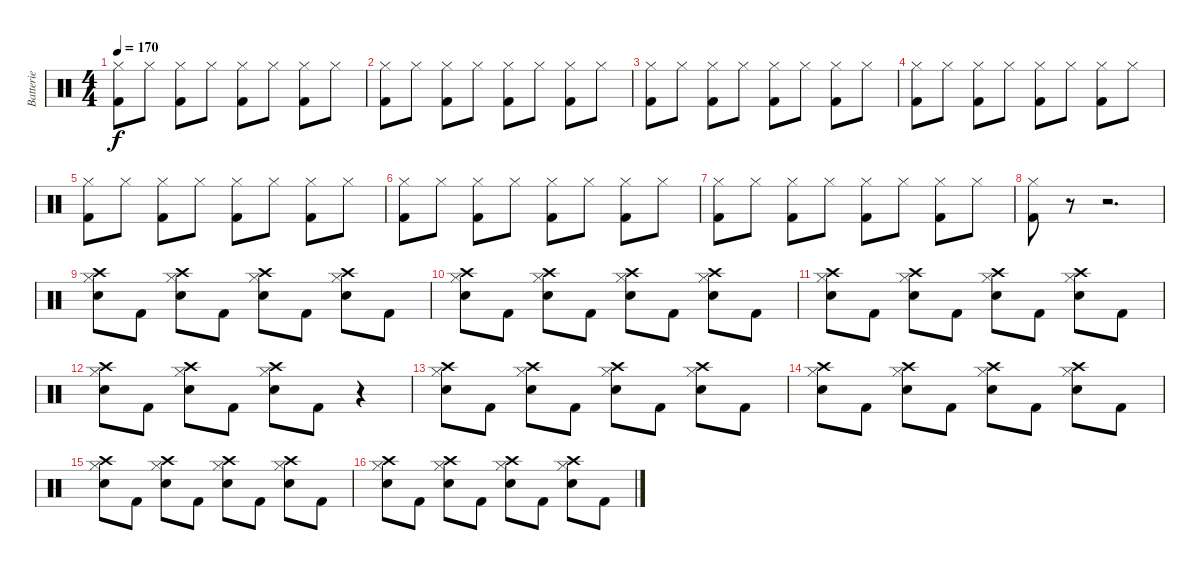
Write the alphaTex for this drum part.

\track ("Batterie" "Batterie") {instrument percussion}
\staff {score}
\articulation defaults
\ts (4 4)
\tempo 170
\clef neutral
\ks c
("Hi-Hat (closed)" "Kick (hit) 2").8{dy f} "Hi-Hat (closed)".8 ("Hi-Hat (closed)" "Kick (hit) 2").8 "Hi-Hat (closed)".8 ("Hi-Hat (closed)" "Kick (hit) 2").8 "Hi-Hat (closed)".8 ("Hi-Hat (closed)" "Kick (hit) 2").8 "Hi-Hat (closed)".8 |
("Hi-Hat (closed)" "Kick (hit) 2").8 "Hi-Hat (closed)".8 ("Hi-Hat (closed)" "Kick (hit) 2").8 "Hi-Hat (closed)".8 ("Hi-Hat (closed)" "Kick (hit) 2").8 "Hi-Hat (closed)".8 ("Hi-Hat (closed)" "Kick (hit) 2").8 "Hi-Hat (closed)".8 |
("Hi-Hat (closed)" "Kick (hit) 2").8 "Hi-Hat (closed)".8 ("Hi-Hat (closed)" "Kick (hit) 2").8 "Hi-Hat (closed)".8 ("Hi-Hat (closed)" "Kick (hit) 2").8 "Hi-Hat (closed)".8 ("Hi-Hat (closed)" "Kick (hit) 2").8 "Hi-Hat (closed)".8 |
("Hi-Hat (closed)" "Kick (hit) 2").8 "Hi-Hat (closed)".8 ("Hi-Hat (closed)" "Kick (hit) 2").8 "Hi-Hat (closed)".8 ("Hi-Hat (closed)" "Kick (hit) 2").8 "Hi-Hat (closed)".8 ("Hi-Hat (closed)" "Kick (hit) 2").8 "Hi-Hat (closed)".8 |
("Hi-Hat (closed)" "Kick (hit) 2").8 "Hi-Hat (closed)".8 ("Hi-Hat (closed)" "Kick (hit) 2").8 "Hi-Hat (closed)".8 ("Hi-Hat (closed)" "Kick (hit) 2").8 "Hi-Hat (closed)".8 ("Hi-Hat (closed)" "Kick (hit) 2").8 "Hi-Hat (closed)".8 |
("Hi-Hat (closed)" "Kick (hit) 2").8 "Hi-Hat (closed)".8 ("Hi-Hat (closed)" "Kick (hit) 2").8 "Hi-Hat (closed)".8 ("Hi-Hat (closed)" "Kick (hit) 2").8 "Hi-Hat (closed)".8 ("Hi-Hat (closed)" "Kick (hit) 2").8 "Hi-Hat (closed)".8 |
("Hi-Hat (closed)" "Kick (hit) 2").8 "Hi-Hat (closed)".8 ("Hi-Hat (closed)" "Kick (hit) 2").8 "Hi-Hat (closed)".8 ("Hi-Hat (closed)" "Kick (hit) 2").8 "Hi-Hat (closed)".8 ("Hi-Hat (closed)" "Kick (hit) 2").8 "Hi-Hat (closed)".8 |
("Hi-Hat (closed)" "Kick (hit) 2").8 r.8 r.2{d} |
\section ("" "")
("Hi-Hat (closed)" "Snare (hit) 2" "Crash high (hit)").8 "Kick (hit) 2".8 ("Hi-Hat (closed)" "Snare (hit) 2" "Crash high (hit)").8 "Kick (hit) 2".8 ("Hi-Hat (closed)" "Snare (hit) 2" "Crash high (hit)").8 "Kick (hit) 2".8 ("Hi-Hat (closed)" "Snare (hit) 2" "Crash high (hit)").8 "Kick (hit) 2".8 |
("Hi-Hat (closed)" "Snare (hit) 2" "Crash high (hit)").8 "Kick (hit) 2".8 ("Hi-Hat (closed)" "Snare (hit) 2" "Crash high (hit)").8 "Kick (hit) 2".8 ("Hi-Hat (closed)" "Snare (hit) 2" "Crash high (hit)").8 "Kick (hit) 2".8 ("Hi-Hat (closed)" "Snare (hit) 2" "Crash high (hit)").8 "Kick (hit) 2".8 |
("Hi-Hat (closed)" "Snare (hit) 2" "Crash high (hit)").8 "Kick (hit) 2".8 ("Hi-Hat (closed)" "Snare (hit) 2" "Crash high (hit)").8 "Kick (hit) 2".8 ("Hi-Hat (closed)" "Snare (hit) 2" "Crash high (hit)").8 "Kick (hit) 2".8 ("Hi-Hat (closed)" "Snare (hit) 2" "Crash high (hit)").8 "Kick (hit) 2".8 |
("Hi-Hat (closed)" "Snare (hit) 2" "Crash high (hit)").8 "Kick (hit) 2".8 ("Hi-Hat (closed)" "Snare (hit) 2" "Crash high (hit)").8 "Kick (hit) 2".8 ("Hi-Hat (closed)" "Snare (hit) 2" "Crash high (hit)").8 "Kick (hit) 2".8 r.4 |
("Hi-Hat (closed)" "Snare (hit) 2" "Crash high (hit)").8 "Kick (hit) 2".8 ("Hi-Hat (closed)" "Snare (hit) 2" "Crash high (hit)").8 "Kick (hit) 2".8 ("Hi-Hat (closed)" "Snare (hit) 2" "Crash high (hit)").8 "Kick (hit) 2".8 ("Hi-Hat (closed)" "Snare (hit) 2" "Crash high (hit)").8 "Kick (hit) 2".8 |
("Hi-Hat (closed)" "Snare (hit) 2" "Crash high (hit)").8 "Kick (hit) 2".8 ("Hi-Hat (closed)" "Snare (hit) 2" "Crash high (hit)").8 "Kick (hit) 2".8 ("Hi-Hat (closed)" "Snare (hit) 2" "Crash high (hit)").8 "Kick (hit) 2".8 ("Hi-Hat (closed)" "Snare (hit) 2" "Crash high (hit)").8 "Kick (hit) 2".8 |
("Hi-Hat (closed)" "Snare (hit) 2" "Crash high (hit)").8 "Kick (hit) 2".8 ("Hi-Hat (closed)" "Snare (hit) 2" "Crash high (hit)").8 "Kick (hit) 2".8 ("Hi-Hat (closed)" "Snare (hit) 2" "Crash high (hit)").8 "Kick (hit) 2".8 ("Hi-Hat (closed)" "Snare (hit) 2" "Crash high (hit)").8 "Kick (hit) 2".8 |
("Hi-Hat (closed)" "Snare (hit) 2" "Crash high (hit)").8 "Kick (hit) 2".8 ("Hi-Hat (closed)" "Snare (hit) 2" "Crash high (hit)").8 "Kick (hit) 2".8 ("Hi-Hat (closed)" "Snare (hit) 2" "Crash high (hit)").8 "Kick (hit) 2".8 ("Hi-Hat (closed)" "Snare (hit) 2" "Crash high (hit)").8 "Kick (hit) 2".8
